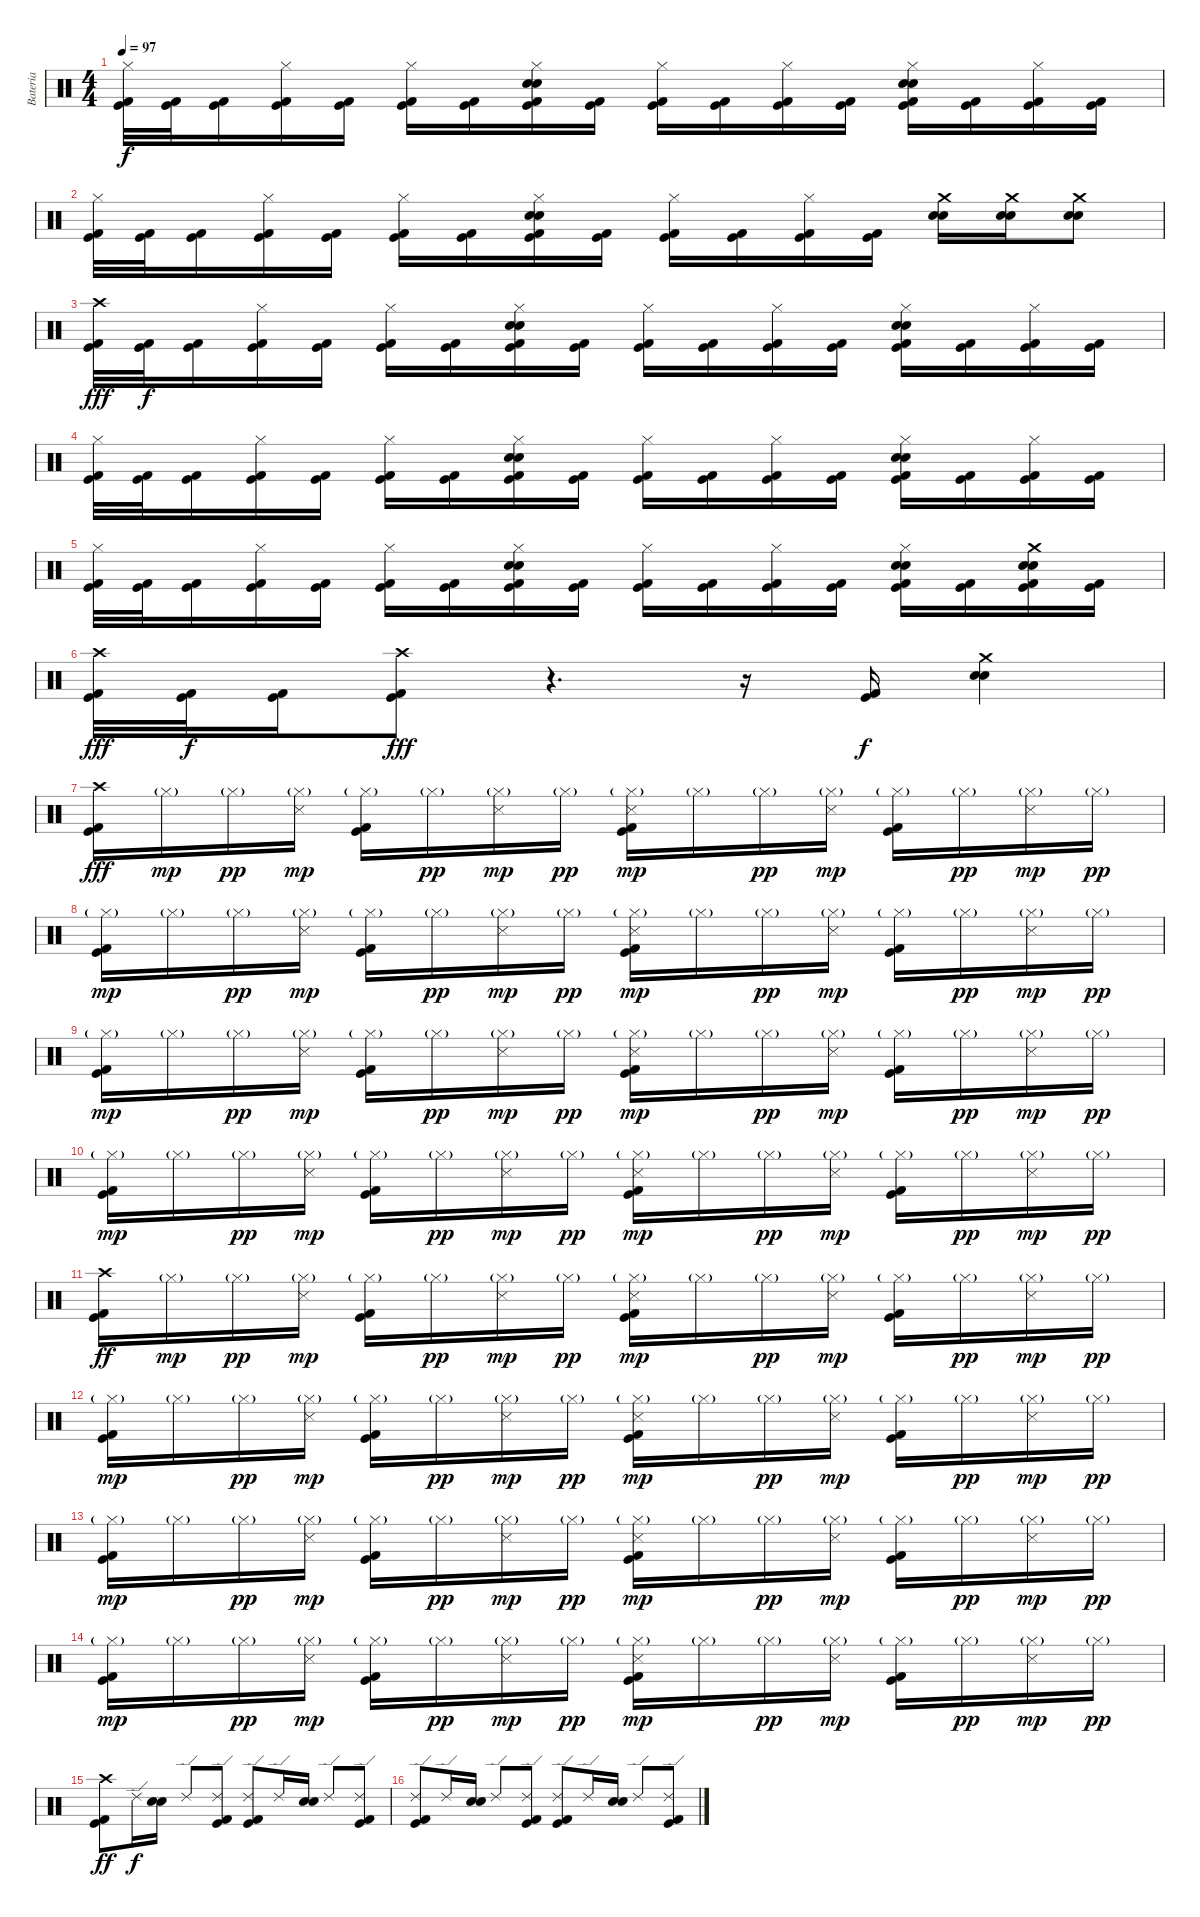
\track ("Bateria" "Bateria") {instrument percussion}
\staff {score}
\articulation defaults
\ts (4 4)
\tempo 97
\clef neutral
\ks c
("Hi-Hat (closed)" "Kick (hit) 2" "Kick (hit)").32{dy f} ("Kick (hit) 2" "Kick (hit)").32 ("Kick (hit) 2" "Kick (hit)").16 ("Hi-Hat (closed)" "Kick (hit) 2" "Kick (hit)").16 ("Kick (hit) 2" "Kick (hit)").16 ("Hi-Hat (closed)" "Kick (hit) 2" "Kick (hit)").16 ("Kick (hit) 2" "Kick (hit)").16 ("Hi-Hat (closed)" "Electric Snare (hit)" "Snare (hit) 2" "Kick (hit) 2" "Kick (hit)").16 ("Kick (hit) 2" "Kick (hit)").16 ("Hi-Hat (closed)" "Kick (hit) 2" "Kick (hit)").16 ("Kick (hit) 2" "Kick (hit)").16 ("Hi-Hat (closed)" "Kick (hit) 2" "Kick (hit)").16 ("Kick (hit) 2" "Kick (hit)").16 ("Hi-Hat (closed)" "Electric Snare (hit)" "Snare (hit) 2" "Kick (hit) 2" "Kick (hit)").16 ("Kick (hit) 2" "Kick (hit)").16 ("Hi-Hat (closed)" "Kick (hit) 2" "Kick (hit)").16 ("Kick (hit) 2" "Kick (hit)").16 |
("Hi-Hat (closed)" "Kick (hit) 2" "Kick (hit)").32 ("Kick (hit) 2" "Kick (hit)").32 ("Kick (hit) 2" "Kick (hit)").16 ("Hi-Hat (closed)" "Kick (hit) 2" "Kick (hit)").16 ("Kick (hit) 2" "Kick (hit)").16 ("Hi-Hat (closed)" "Kick (hit) 2" "Kick (hit)").16 ("Kick (hit) 2" "Kick (hit)").16 ("Hi-Hat (closed)" "Electric Snare (hit)" "Snare (hit) 2" "Kick (hit) 2" "Kick (hit)").16 ("Kick (hit) 2" "Kick (hit)").16 ("Hi-Hat (closed)" "Kick (hit) 2" "Kick (hit)").16 ("Kick (hit) 2" "Kick (hit)").16 ("Hi-Hat (closed)" "Kick (hit) 2" "Kick (hit)").16 ("Kick (hit) 2" "Kick (hit)").16 ("Crash medium (hit)" "Electric Snare (hit)" "Snare (hit) 2").16 ("Crash medium (hit)" "Electric Snare (hit)" "Snare (hit) 2").16 ("Crash medium (hit)" "Electric Snare (hit)" "Snare (hit) 2").8 |
("Crash high (hit)" "Kick (hit) 2" "Kick (hit)").32{dy fff} ("Kick (hit) 2" "Kick (hit)").32{dy f} ("Kick (hit) 2" "Kick (hit)").16 ("Hi-Hat (closed)" "Kick (hit) 2" "Kick (hit)").16 ("Kick (hit) 2" "Kick (hit)").16 ("Hi-Hat (closed)" "Kick (hit) 2" "Kick (hit)").16 ("Kick (hit) 2" "Kick (hit)").16 ("Hi-Hat (closed)" "Electric Snare (hit)" "Snare (hit) 2" "Kick (hit) 2" "Kick (hit)").16 ("Kick (hit) 2" "Kick (hit)").16 ("Hi-Hat (closed)" "Kick (hit) 2" "Kick (hit)").16 ("Kick (hit) 2" "Kick (hit)").16 ("Hi-Hat (closed)" "Kick (hit) 2" "Kick (hit)").16 ("Kick (hit) 2" "Kick (hit)").16 ("Hi-Hat (closed)" "Electric Snare (hit)" "Snare (hit) 2" "Kick (hit) 2" "Kick (hit)").16 ("Kick (hit) 2" "Kick (hit)").16 ("Hi-Hat (closed)" "Kick (hit) 2" "Kick (hit)").16 ("Kick (hit) 2" "Kick (hit)").16 |
("Hi-Hat (closed)" "Kick (hit) 2" "Kick (hit)").32 ("Kick (hit) 2" "Kick (hit)").32 ("Kick (hit) 2" "Kick (hit)").16 ("Hi-Hat (closed)" "Kick (hit) 2" "Kick (hit)").16 ("Kick (hit) 2" "Kick (hit)").16 ("Hi-Hat (closed)" "Kick (hit) 2" "Kick (hit)").16 ("Kick (hit) 2" "Kick (hit)").16 ("Hi-Hat (closed)" "Electric Snare (hit)" "Snare (hit) 2" "Kick (hit) 2" "Kick (hit)").16 ("Kick (hit) 2" "Kick (hit)").16 ("Hi-Hat (closed)" "Kick (hit) 2" "Kick (hit)").16 ("Kick (hit) 2" "Kick (hit)").16 ("Hi-Hat (closed)" "Kick (hit) 2" "Kick (hit)").16 ("Kick (hit) 2" "Kick (hit)").16 ("Hi-Hat (closed)" "Electric Snare (hit)" "Snare (hit) 2" "Kick (hit) 2" "Kick (hit)").16 ("Kick (hit) 2" "Kick (hit)").16 ("Hi-Hat (closed)" "Kick (hit) 2" "Kick (hit)").16 ("Kick (hit) 2" "Kick (hit)").16 |
("Hi-Hat (closed)" "Kick (hit) 2" "Kick (hit)").32 ("Kick (hit) 2" "Kick (hit)").32 ("Kick (hit) 2" "Kick (hit)").16 ("Hi-Hat (closed)" "Kick (hit) 2" "Kick (hit)").16 ("Kick (hit) 2" "Kick (hit)").16 ("Hi-Hat (closed)" "Kick (hit) 2" "Kick (hit)").16 ("Kick (hit) 2" "Kick (hit)").16 ("Hi-Hat (closed)" "Electric Snare (hit)" "Snare (hit) 2" "Kick (hit) 2" "Kick (hit)").16 ("Kick (hit) 2" "Kick (hit)").16 ("Hi-Hat (closed)" "Kick (hit) 2" "Kick (hit)").16 ("Kick (hit) 2" "Kick (hit)").16 ("Hi-Hat (closed)" "Kick (hit) 2" "Kick (hit)").16 ("Kick (hit) 2" "Kick (hit)").16 ("Hi-Hat (closed)" "Electric Snare (hit)" "Snare (hit) 2" "Kick (hit) 2" "Kick (hit)").16 ("Kick (hit) 2" "Kick (hit)").16 ("Crash medium (hit)" "Electric Snare (hit)" "Snare (hit) 2" "Kick (hit) 2" "Kick (hit)").16 ("Kick (hit) 2" "Kick (hit)").16 |
("Crash high (hit)" "Kick (hit) 2" "Kick (hit)").32{dy fff} ("Kick (hit) 2" "Kick (hit)").32{dy f} ("Kick (hit) 2" "Kick (hit)").16 ("Crash high (hit)" "Kick (hit) 2" "Kick (hit)").8{dy fff} r.4{d} r.16 ("Kick (hit) 2" "Kick (hit)").16{dy f} ("Crash medium (hit)" "Electric Snare (hit)" "Snare (hit) 2").4 |
("Crash high (hit)" "Kick (hit) 2" "Kick (hit)").16{dy fff} "Hi-Hat (closed)"{g}.16{dy mp} "Hi-Hat (closed)"{g}.16{dy pp} ("Snare (side stick) 3" "Hi-Hat (closed)"{g}).16{dy mp} ("Hi-Hat (closed)"{g} "Kick (hit) 2" "Kick (hit)").16 "Hi-Hat (closed)"{g}.16{dy pp} ("Snare (side stick) 3" "Hi-Hat (closed)"{g}).16{dy mp} "Hi-Hat (closed)"{g}.16{dy pp} ("Snare (side stick) 3" "Hi-Hat (closed)"{g} "Kick (hit) 2" "Kick (hit)").16{dy mp} "Hi-Hat (closed)"{g}.16 "Hi-Hat (closed)"{g}.16{dy pp} ("Snare (side stick) 3" "Hi-Hat (closed)"{g}).16{dy mp} ("Hi-Hat (closed)"{g} "Kick (hit) 2" "Kick (hit)").16 "Hi-Hat (closed)"{g}.16{dy pp} ("Snare (side stick) 3" "Hi-Hat (closed)"{g}).16{dy mp} "Hi-Hat (closed)"{g}.16{dy pp} |
("Hi-Hat (closed)"{g} "Kick (hit) 2" "Kick (hit)").16{dy mp} "Hi-Hat (closed)"{g}.16 "Hi-Hat (closed)"{g}.16{dy pp} ("Snare (side stick) 3" "Hi-Hat (closed)"{g}).16{dy mp} ("Hi-Hat (closed)"{g} "Kick (hit) 2" "Kick (hit)").16 "Hi-Hat (closed)"{g}.16{dy pp} ("Snare (side stick) 3" "Hi-Hat (closed)"{g}).16{dy mp} "Hi-Hat (closed)"{g}.16{dy pp} ("Snare (side stick) 3" "Hi-Hat (closed)"{g} "Kick (hit) 2" "Kick (hit)").16{dy mp} "Hi-Hat (closed)"{g}.16 "Hi-Hat (closed)"{g}.16{dy pp} ("Snare (side stick) 3" "Hi-Hat (closed)"{g}).16{dy mp} ("Hi-Hat (closed)"{g} "Kick (hit) 2" "Kick (hit)").16 "Hi-Hat (closed)"{g}.16{dy pp} ("Snare (side stick) 3" "Hi-Hat (closed)"{g}).16{dy mp} "Hi-Hat (closed)"{g}.16{dy pp} |
("Hi-Hat (closed)"{g} "Kick (hit) 2" "Kick (hit)").16{dy mp} "Hi-Hat (closed)"{g}.16 "Hi-Hat (closed)"{g}.16{dy pp} ("Snare (side stick) 3" "Hi-Hat (closed)"{g}).16{dy mp} ("Hi-Hat (closed)"{g} "Kick (hit) 2" "Kick (hit)").16 "Hi-Hat (closed)"{g}.16{dy pp} ("Snare (side stick) 3" "Hi-Hat (closed)"{g}).16{dy mp} "Hi-Hat (closed)"{g}.16{dy pp} ("Snare (side stick) 3" "Hi-Hat (closed)"{g} "Kick (hit) 2" "Kick (hit)").16{dy mp} "Hi-Hat (closed)"{g}.16 "Hi-Hat (closed)"{g}.16{dy pp} ("Snare (side stick) 3" "Hi-Hat (closed)"{g}).16{dy mp} ("Hi-Hat (closed)"{g} "Kick (hit) 2" "Kick (hit)").16 "Hi-Hat (closed)"{g}.16{dy pp} ("Snare (side stick) 3" "Hi-Hat (closed)"{g}).16{dy mp} "Hi-Hat (closed)"{g}.16{dy pp} |
("Hi-Hat (closed)"{g} "Kick (hit) 2" "Kick (hit)").16{dy mp} "Hi-Hat (closed)"{g}.16 "Hi-Hat (closed)"{g}.16{dy pp} ("Snare (side stick) 3" "Hi-Hat (closed)"{g}).16{dy mp} ("Hi-Hat (closed)"{g} "Kick (hit) 2" "Kick (hit)").16 "Hi-Hat (closed)"{g}.16{dy pp} ("Snare (side stick) 3" "Hi-Hat (closed)"{g}).16{dy mp} "Hi-Hat (closed)"{g}.16{dy pp} ("Snare (side stick) 3" "Hi-Hat (closed)"{g} "Kick (hit) 2" "Kick (hit)").16{dy mp} "Hi-Hat (closed)"{g}.16 "Hi-Hat (closed)"{g}.16{dy pp} ("Snare (side stick) 3" "Hi-Hat (closed)"{g}).16{dy mp} ("Hi-Hat (closed)"{g} "Kick (hit) 2" "Kick (hit)").16 "Hi-Hat (closed)"{g}.16{dy pp} ("Snare (side stick) 3" "Hi-Hat (closed)"{g}).16{dy mp} "Hi-Hat (closed)"{g}.16{dy pp} |
("Crash high (hit)" "Kick (hit) 2" "Kick (hit)").16{dy ff} "Hi-Hat (closed)"{g}.16{dy mp} "Hi-Hat (closed)"{g}.16{dy pp} ("Snare (side stick) 3" "Hi-Hat (closed)"{g}).16{dy mp} ("Hi-Hat (closed)"{g} "Kick (hit) 2" "Kick (hit)").16 "Hi-Hat (closed)"{g}.16{dy pp} ("Snare (side stick) 3" "Hi-Hat (closed)"{g}).16{dy mp} "Hi-Hat (closed)"{g}.16{dy pp} ("Snare (side stick) 3" "Hi-Hat (closed)"{g} "Kick (hit) 2" "Kick (hit)").16{dy mp} "Hi-Hat (closed)"{g}.16 "Hi-Hat (closed)"{g}.16{dy pp} ("Snare (side stick) 3" "Hi-Hat (closed)"{g}).16{dy mp} ("Hi-Hat (closed)"{g} "Kick (hit) 2" "Kick (hit)").16 "Hi-Hat (closed)"{g}.16{dy pp} ("Snare (side stick) 3" "Hi-Hat (closed)"{g}).16{dy mp} "Hi-Hat (closed)"{g}.16{dy pp} |
("Hi-Hat (closed)"{g} "Kick (hit) 2" "Kick (hit)").16{dy mp} "Hi-Hat (closed)"{g}.16 "Hi-Hat (closed)"{g}.16{dy pp} ("Snare (side stick) 3" "Hi-Hat (closed)"{g}).16{dy mp} ("Hi-Hat (closed)"{g} "Kick (hit) 2" "Kick (hit)").16 "Hi-Hat (closed)"{g}.16{dy pp} ("Snare (side stick) 3" "Hi-Hat (closed)"{g}).16{dy mp} "Hi-Hat (closed)"{g}.16{dy pp} ("Snare (side stick) 3" "Hi-Hat (closed)"{g} "Kick (hit) 2" "Kick (hit)").16{dy mp} "Hi-Hat (closed)"{g}.16 "Hi-Hat (closed)"{g}.16{dy pp} ("Snare (side stick) 3" "Hi-Hat (closed)"{g}).16{dy mp} ("Hi-Hat (closed)"{g} "Kick (hit) 2" "Kick (hit)").16 "Hi-Hat (closed)"{g}.16{dy pp} ("Snare (side stick) 3" "Hi-Hat (closed)"{g}).16{dy mp} "Hi-Hat (closed)"{g}.16{dy pp} |
("Hi-Hat (closed)"{g} "Kick (hit) 2" "Kick (hit)").16{dy mp} "Hi-Hat (closed)"{g}.16 "Hi-Hat (closed)"{g}.16{dy pp} ("Snare (side stick) 3" "Hi-Hat (closed)"{g}).16{dy mp} ("Hi-Hat (closed)"{g} "Kick (hit) 2" "Kick (hit)").16 "Hi-Hat (closed)"{g}.16{dy pp} ("Snare (side stick) 3" "Hi-Hat (closed)"{g}).16{dy mp} "Hi-Hat (closed)"{g}.16{dy pp} ("Snare (side stick) 3" "Hi-Hat (closed)"{g} "Kick (hit) 2" "Kick (hit)").16{dy mp} "Hi-Hat (closed)"{g}.16 "Hi-Hat (closed)"{g}.16{dy pp} ("Snare (side stick) 3" "Hi-Hat (closed)"{g}).16{dy mp} ("Hi-Hat (closed)"{g} "Kick (hit) 2" "Kick (hit)").16 "Hi-Hat (closed)"{g}.16{dy pp} ("Snare (side stick) 3" "Hi-Hat (closed)"{g}).16{dy mp} "Hi-Hat (closed)"{g}.16{dy pp} |
("Hi-Hat (closed)"{g} "Kick (hit) 2" "Kick (hit)").16{dy mp} "Hi-Hat (closed)"{g}.16 "Hi-Hat (closed)"{g}.16{dy pp} ("Snare (side stick) 3" "Hi-Hat (closed)"{g}).16{dy mp} ("Hi-Hat (closed)"{g} "Kick (hit) 2" "Kick (hit)").16 "Hi-Hat (closed)"{g}.16{dy pp} ("Snare (side stick) 3" "Hi-Hat (closed)"{g}).16{dy mp} "Hi-Hat (closed)"{g}.16{dy pp} ("Snare (side stick) 3" "Hi-Hat (closed)"{g} "Kick (hit) 2" "Kick (hit)").16{dy mp} "Hi-Hat (closed)"{g}.16 "Hi-Hat (closed)"{g}.16{dy pp} ("Snare (side stick) 3" "Hi-Hat (closed)"{g}).16{dy mp} ("Hi-Hat (closed)"{g} "Kick (hit) 2" "Kick (hit)").16 "Hi-Hat (closed)"{g}.16{dy pp} ("Snare (side stick) 3" "Hi-Hat (closed)"{g}).16{dy mp} "Hi-Hat (closed)"{g}.16{dy pp} |
("Crash high (hit)" "Kick (hit) 2" "Kick (hit)").8{dy ff} "Ride (edge) 2".16{dy f} ("Electric Snare (hit)" "Snare (hit) 2").16 "Ride (edge) 2".8 ("Ride (edge) 2" "Kick (hit) 2" "Kick (hit)").8 ("Ride (edge) 2" "Kick (hit) 2" "Kick (hit)").8 "Ride (edge) 2".16 ("Electric Snare (hit)" "Snare (hit) 2").16 "Ride (edge) 2".8 ("Ride (edge) 2" "Kick (hit) 2" "Kick (hit)").8 |
("Ride (edge) 2" "Kick (hit) 2" "Kick (hit)").8 "Ride (edge) 2".16 ("Electric Snare (hit)" "Snare (hit) 2").16 "Ride (edge) 2".8 ("Ride (edge) 2" "Kick (hit) 2" "Kick (hit)").8 ("Ride (edge) 2" "Kick (hit) 2" "Kick (hit)").8 "Ride (edge) 2".16 ("Electric Snare (hit)" "Snare (hit) 2").16 "Ride (edge) 2".8 ("Ride (edge) 2" "Kick (hit) 2" "Kick (hit)").8
